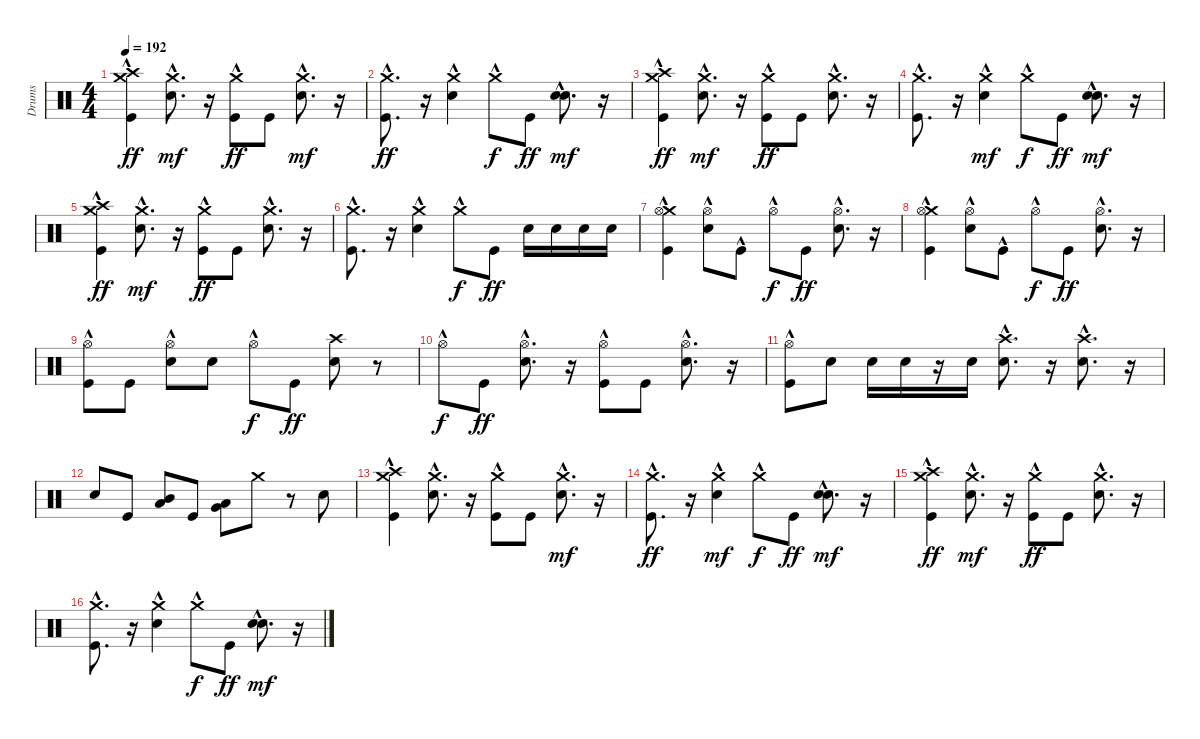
\track ("Drums" "Drums") {instrument percussion}
\staff {score}
\articulation defaults
\ts (4 4)
\tempo 192
\clef neutral
\ks c
("Kick (hit)"{hac} "Crash medium (hit)"{hac} "Crash high (hit)"{hac}).4{dy ff} ("Electric Snare (hit)"{hac} "Crash medium (hit)"{hac}).8{d dy mf} r.16 ("Kick (hit)" "Crash medium (hit)"{hac}).8{dy ff} "Kick (hit)".8 ("Electric Snare (hit)"{hac} "Crash medium (hit)"{hac}).8{d dy mf} r.16 |
("Crash medium (hit)"{hac} "Kick (hit)"{hac}).8{d dy ff} r.16 ("Crash medium (hit)"{hac} "Electric Snare (hit)").4 "Crash medium (hit)"{hac}.8{dy f} "Kick (hit)".8{dy ff} ("Electric Snare (hit)"{hac} "Snare (hit) 2"{hac}).8{d dy mf} r.16 |
("Kick (hit)"{hac} "Crash medium (hit)"{hac} "Crash high (hit)"{hac}).4{dy ff} ("Electric Snare (hit)"{hac} "Crash medium (hit)"{hac}).8{d dy mf} r.16 ("Kick (hit)" "Crash medium (hit)"{hac}).8{dy ff} "Kick (hit)".8 ("Crash medium (hit)"{hac} "Electric Snare (hit)"{hac}).8{d} r.16 |
("Crash medium (hit)"{hac} "Kick (hit)"{hac}).8{d} r.16 ("Electric Snare (hit)" "Crash medium (hit)"{hac}).4{dy mf} "Crash medium (hit)"{hac}.8{dy f} "Kick (hit)".8{dy ff} ("Electric Snare (hit)"{hac} "Snare (hit) 2"{hac}).8{d dy mf} r.16 |
("Kick (hit)"{hac} "Crash medium (hit)"{hac} "Crash high (hit)"{hac}).4{dy ff} ("Electric Snare (hit)"{hac} "Crash medium (hit)"{hac}).8{d dy mf} r.16 ("Kick (hit)" "Crash medium (hit)"{hac}).8{dy ff} "Kick (hit)".8 ("Crash medium (hit)"{hac} "Electric Snare (hit)"{hac}).8{d} r.16 |
("Crash medium (hit)"{hac} "Kick (hit)"{hac}).8{d} r.16 ("Crash medium (hit)"{hac} "Electric Snare (hit)").4 "Crash medium (hit)"{hac}.8{dy f} "Kick (hit)".8{dy ff} "Electric Snare (hit)".16 "Electric Snare (hit)".16 "Electric Snare (hit)".16 "Electric Snare (hit)".16 |
("Crash medium (hit)"{hac} "Hi-Hat (open)"{hac} "Kick (hit)"{hac}).4 ("Electric Snare (hit)" "Hi-Hat (open)"{hac}).8 "Kick (hit)"{hac}.8 "Hi-Hat (open)"{hac}.8{dy f} "Kick (hit)".8{dy ff} ("Hi-Hat (open)"{hac} "Electric Snare (hit)"{hac}).8{d} r.16 |
("Crash medium (hit)"{hac} "Hi-Hat (open)"{hac} "Kick (hit)"{hac}).4 ("Electric Snare (hit)" "Hi-Hat (open)"{hac}).8 "Kick (hit)"{hac}.8 "Hi-Hat (open)"{hac}.8{dy f} "Kick (hit)".8{dy ff} ("Hi-Hat (open)"{hac} "Electric Snare (hit)"{hac}).8{d} r.16 |
("Hi-Hat (open)"{hac} "Kick (hit)").8 "Kick (hit)".8 ("Hi-Hat (open)"{hac} "Electric Snare (hit)").8 "Electric Snare (hit)".8 "Hi-Hat (open)"{hac}.8{dy f} "Kick (hit)".8{dy ff} ("Electric Snare (hit)" "Crash high (hit)").8 r.8 |
"Hi-Hat (open)"{hac}.8{dy f} "Kick (hit)".8{dy ff} ("Hi-Hat (open)"{hac} "Electric Snare (hit)"{hac}).8{d} r.16 ("Hi-Hat (open)"{hac} "Kick (hit)").8 "Kick (hit)".8 ("Hi-Hat (open)"{hac} "Electric Snare (hit)"{hac}).8{d} r.16 |
("Kick (hit)" "Hi-Hat (open)"{hac}).8 "Electric Snare (hit)".8 "Electric Snare (hit)".16 "Electric Snare (hit)".16 r.16 "Electric Snare (hit)".16 ("Electric Snare (hit)"{hac} "Crash high (hit)"{hac}).8{d} r.16 ("Crash high (hit)"{hac} "Electric Snare (hit)"{hac}).8{d} r.16 |
"Electric Snare (hit)".8 "Kick (hit)".8 ("Low Tom (hit)" "Mid Tom (hit)").8 "Kick (hit)".8 ("Low Floor Tom (hit)" "Very Low Tom (hit)").8 "Crash medium (hit)".8 r.8 "Electric Snare (hit)".8 |
("Crash high (hit)"{hac} "Kick (hit)"{hac} "Crash medium (hit)"{hac}).4 ("Crash medium (hit)"{hac} "Electric Snare (hit)"{hac}).8{d} r.16 ("Kick (hit)" "Crash medium (hit)"{hac}).8 "Kick (hit)".8 ("Electric Snare (hit)"{hac} "Crash medium (hit)"{hac}).8{d dy mf} r.16 |
("Crash medium (hit)"{hac} "Kick (hit)"{hac}).8{d dy ff} r.16 ("Electric Snare (hit)" "Crash medium (hit)"{hac}).4{dy mf} "Crash medium (hit)"{hac}.8{dy f} "Kick (hit)".8{dy ff} ("Electric Snare (hit)"{hac} "Snare (hit) 2"{hac}).8{d dy mf} r.16 |
("Crash high (hit)"{hac} "Kick (hit)"{hac} "Crash medium (hit)"{hac}).4{dy ff} ("Electric Snare (hit)"{hac} "Crash medium (hit)"{hac}).8{d dy mf} r.16 ("Crash medium (hit)"{hac} "Kick (hit)").8{dy ff} "Kick (hit)".8 ("Crash medium (hit)"{hac} "Electric Snare (hit)"{hac}).8{d} r.16 |
("Kick (hit)"{hac} "Crash medium (hit)"{hac}).8{d} r.16 ("Crash medium (hit)"{hac} "Electric Snare (hit)").4 "Crash medium (hit)"{hac}.8{dy f} "Kick (hit)".8{dy ff} ("Electric Snare (hit)"{hac} "Snare (hit) 2"{hac}).8{d dy mf} r.16
